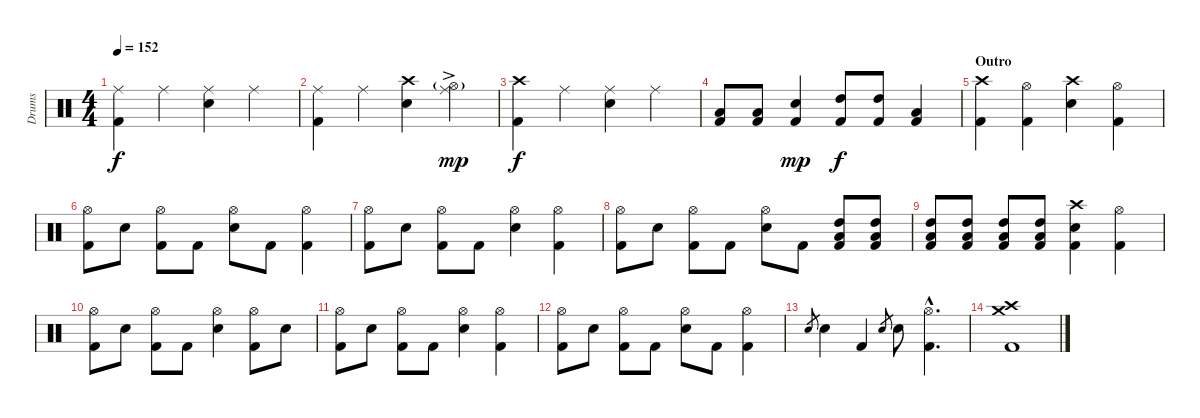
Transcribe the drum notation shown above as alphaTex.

\track ("Drums" "Drums") {instrument percussion}
\staff {score}
\articulation defaults
\ts (4 4)
\tempo 152
\clef neutral
\ks c
("Ride (middle)" "Kick (hit) 2").4{dy f} "Ride (middle)".4 ("Ride (middle)" "Electric Snare (hit)").4 "Ride (middle)".4 |
("Ride (middle)" "Kick (hit) 2").4 "Ride (middle)".4 ("Crash high (hit)" "Electric Snare (hit)").4 ("Ride (middle)"{ac} "Hi-Hat (open)"{g}).4{dy mp} |
("Crash high (hit)" "Kick (hit) 2").4{dy f} "Ride (middle)".4 ("Ride (middle)" "Electric Snare (hit)").4 "Ride (middle)".4 |
("Low Floor Tom (hit)" "Kick (hit) 2").8 ("Low Floor Tom (hit)" "Kick (hit) 2").8 ("Electric Snare (hit)" "Kick (hit) 2").4{dy mp} ("High Tom (hit)" "Kick (hit) 2").8{dy f} ("High Tom (hit)" "Kick (hit) 2").8 ("Low Tom (hit)" "Kick (hit) 2").4 |
\section ("" "Outro")
("Crash high (hit)" "Kick (hit) 2").4 ("Hi-Hat (open)" "Kick (hit) 2").4 ("Crash high (hit)" "Electric Snare (hit)").4 ("Hi-Hat (open)" "Kick (hit) 2").4 |
("Hi-Hat (open)" "Kick (hit) 2").8 "Electric Snare (hit)".8 ("Hi-Hat (open)" "Kick (hit) 2").8 "Kick (hit) 2".8 ("Hi-Hat (open)" "Electric Snare (hit)").8 "Kick (hit) 2".8 ("Hi-Hat (open)" "Kick (hit) 2").4 |
("Hi-Hat (open)" "Kick (hit) 2").8 "Electric Snare (hit)".8 ("Hi-Hat (open)" "Kick (hit) 2").8 "Kick (hit) 2".8 ("Hi-Hat (open)" "Electric Snare (hit)").4 ("Hi-Hat (open)" "Kick (hit) 2").4 |
("Hi-Hat (open)" "Kick (hit) 2").8 "Electric Snare (hit)".8 ("Hi-Hat (open)" "Kick (hit) 2").8 "Kick (hit) 2".8 ("Hi-Hat (open)" "Electric Snare (hit)").8 "Kick (hit) 2".8 ("Kick (hit) 2" "High Tom (hit)" "Low Tom (hit)").8 ("Kick (hit) 2" "High Tom (hit)" "Low Tom (hit)").8 |
("Kick (hit) 2" "High Tom (hit)" "Low Tom (hit)").8 ("Kick (hit) 2" "High Tom (hit)" "Low Tom (hit)").8 ("Kick (hit) 2" "High Tom (hit)" "Low Tom (hit)").8 ("Kick (hit) 2" "High Tom (hit)" "Low Tom (hit)").8 ("Crash high (hit)" "Electric Snare (hit)" "Kick (hit) 2").4 ("Hi-Hat (open)" "Kick (hit) 2").4 |
("Hi-Hat (open)" "Kick (hit) 2").8 "Electric Snare (hit)".8 ("Hi-Hat (open)" "Kick (hit) 2").8 "Kick (hit) 2".8 ("Hi-Hat (open)" "Electric Snare (hit)").4 ("Hi-Hat (open)" "Kick (hit) 2").8 "Electric Snare (hit)".8 |
("Hi-Hat (open)" "Kick (hit) 2").8 "Electric Snare (hit)".8 ("Hi-Hat (open)" "Kick (hit) 2").8 "Kick (hit) 2".8 ("Hi-Hat (open)" "Electric Snare (hit)").4 ("Hi-Hat (open)" "Kick (hit) 2").4 |
("Hi-Hat (open)" "Kick (hit) 2").8 "Electric Snare (hit)".8 ("Hi-Hat (open)" "Kick (hit) 2").8 "Kick (hit) 2".8 ("Hi-Hat (open)" "Electric Snare (hit)").8 "Kick (hit) 2".8 ("Hi-Hat (open)" "Kick (hit) 2").4 |
"Electric Snare (hit)".8{gr} "Electric Snare (hit)".4 "Kick (hit) 2".4 "Electric Snare (hit)".8{gr} "Electric Snare (hit)".8 ("Hi-Hat (open)"{hac} "Kick (hit) 2"{hac}).4{d} |
("Crash high (hit)" "Crash medium (hit)" "Kick (hit) 2").1
